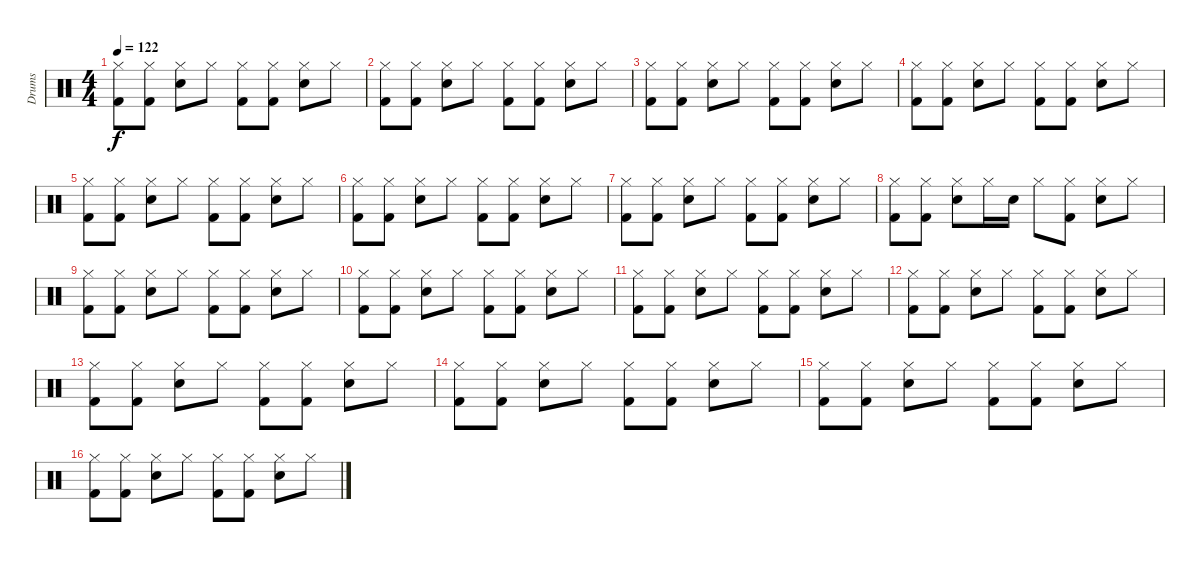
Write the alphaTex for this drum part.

\track ("Drums" "Drums") {instrument percussion}
\staff {score}
\articulation defaults
\ts (4 4)
\tempo 122
\clef neutral
\ks c
("Hi-Hat (closed)" "Kick (hit) 2").8{dy f} ("Hi-Hat (closed)" "Kick (hit) 2").8 ("Hi-Hat (closed)" "Snare (hit) 2").8 "Hi-Hat (closed)".8 ("Hi-Hat (closed)" "Kick (hit) 2").8 ("Hi-Hat (closed)" "Kick (hit) 2").8 ("Hi-Hat (closed)" "Snare (hit) 2").8 "Hi-Hat (closed)".8 |
("Hi-Hat (closed)" "Kick (hit) 2").8 ("Hi-Hat (closed)" "Kick (hit) 2").8 ("Hi-Hat (closed)" "Snare (hit) 2").8 "Hi-Hat (closed)".8 ("Hi-Hat (closed)" "Kick (hit) 2").8 ("Hi-Hat (closed)" "Kick (hit) 2").8 ("Hi-Hat (closed)" "Snare (hit) 2").8 "Hi-Hat (closed)".8 |
("Hi-Hat (closed)" "Kick (hit) 2").8 ("Hi-Hat (closed)" "Kick (hit) 2").8 ("Hi-Hat (closed)" "Snare (hit) 2").8 "Hi-Hat (closed)".8 ("Hi-Hat (closed)" "Kick (hit) 2").8 ("Hi-Hat (closed)" "Kick (hit) 2").8 ("Hi-Hat (closed)" "Snare (hit) 2").8 "Hi-Hat (closed)".8 |
("Hi-Hat (closed)" "Kick (hit) 2").8 ("Hi-Hat (closed)" "Kick (hit) 2").8 ("Hi-Hat (closed)" "Snare (hit) 2").8 "Hi-Hat (closed)".8 ("Hi-Hat (closed)" "Kick (hit) 2").8 ("Hi-Hat (closed)" "Kick (hit) 2").8 ("Hi-Hat (closed)" "Snare (hit) 2").8 "Hi-Hat (closed)".8 |
("Hi-Hat (closed)" "Kick (hit) 2").8 ("Hi-Hat (closed)" "Kick (hit) 2").8 ("Hi-Hat (closed)" "Snare (hit) 2").8 "Hi-Hat (closed)".8 ("Hi-Hat (closed)" "Kick (hit) 2").8 ("Hi-Hat (closed)" "Kick (hit) 2").8 ("Hi-Hat (closed)" "Snare (hit) 2").8 "Hi-Hat (closed)".8 |
("Hi-Hat (closed)" "Kick (hit) 2").8 ("Hi-Hat (closed)" "Kick (hit) 2").8 ("Hi-Hat (closed)" "Snare (hit) 2").8 "Hi-Hat (closed)".8 ("Hi-Hat (closed)" "Kick (hit) 2").8 ("Hi-Hat (closed)" "Kick (hit) 2").8 ("Hi-Hat (closed)" "Snare (hit) 2").8 "Hi-Hat (closed)".8 |
("Hi-Hat (closed)" "Kick (hit) 2").8 ("Hi-Hat (closed)" "Kick (hit) 2").8 ("Hi-Hat (closed)" "Snare (hit) 2").8 "Hi-Hat (closed)".8 ("Hi-Hat (closed)" "Kick (hit) 2").8 ("Hi-Hat (closed)" "Kick (hit) 2").8 ("Hi-Hat (closed)" "Snare (hit) 2").8 "Hi-Hat (closed)".8 |
("Hi-Hat (closed)" "Kick (hit) 2").8 ("Hi-Hat (closed)" "Kick (hit) 2").8 ("Hi-Hat (closed)" "Snare (hit) 2").8 "Hi-Hat (closed)".16 "Snare (hit) 2".16 "Hi-Hat (closed)".8 ("Hi-Hat (closed)" "Kick (hit) 2").8 ("Hi-Hat (closed)" "Snare (hit) 2").8 "Hi-Hat (closed)".8 |
("Hi-Hat (closed)" "Kick (hit) 2").8 ("Hi-Hat (closed)" "Kick (hit) 2").8 ("Hi-Hat (closed)" "Snare (hit) 2").8 "Hi-Hat (closed)".8 ("Hi-Hat (closed)" "Kick (hit) 2").8 ("Hi-Hat (closed)" "Kick (hit) 2").8 ("Hi-Hat (closed)" "Snare (hit) 2").8 "Hi-Hat (closed)".8 |
("Hi-Hat (closed)" "Kick (hit) 2").8 ("Hi-Hat (closed)" "Kick (hit) 2").8 ("Hi-Hat (closed)" "Snare (hit) 2").8 "Hi-Hat (closed)".8 ("Hi-Hat (closed)" "Kick (hit) 2").8 ("Hi-Hat (closed)" "Kick (hit) 2").8 ("Hi-Hat (closed)" "Snare (hit) 2").8 "Hi-Hat (closed)".8 |
("Hi-Hat (closed)" "Kick (hit) 2").8 ("Hi-Hat (closed)" "Kick (hit) 2").8 ("Hi-Hat (closed)" "Snare (hit) 2").8 "Hi-Hat (closed)".8 ("Hi-Hat (closed)" "Kick (hit) 2").8 ("Hi-Hat (closed)" "Kick (hit) 2").8 ("Hi-Hat (closed)" "Snare (hit) 2").8 "Hi-Hat (closed)".8 |
("Hi-Hat (closed)" "Kick (hit) 2").8 ("Hi-Hat (closed)" "Kick (hit) 2").8 ("Hi-Hat (closed)" "Snare (hit) 2").8 "Hi-Hat (closed)".8 ("Hi-Hat (closed)" "Kick (hit) 2").8 ("Hi-Hat (closed)" "Kick (hit) 2").8 ("Hi-Hat (closed)" "Snare (hit) 2").8 "Hi-Hat (closed)".8 |
("Hi-Hat (closed)" "Kick (hit) 2").8 ("Hi-Hat (closed)" "Kick (hit) 2").8 ("Hi-Hat (closed)" "Snare (hit) 2").8 "Hi-Hat (closed)".8 ("Hi-Hat (closed)" "Kick (hit) 2").8 ("Hi-Hat (closed)" "Kick (hit) 2").8 ("Hi-Hat (closed)" "Snare (hit) 2").8 "Hi-Hat (closed)".8 |
("Hi-Hat (closed)" "Kick (hit) 2").8 ("Hi-Hat (closed)" "Kick (hit) 2").8 ("Hi-Hat (closed)" "Snare (hit) 2").8 "Hi-Hat (closed)".8 ("Hi-Hat (closed)" "Kick (hit) 2").8 ("Hi-Hat (closed)" "Kick (hit) 2").8 ("Hi-Hat (closed)" "Snare (hit) 2").8 "Hi-Hat (closed)".8 |
("Hi-Hat (closed)" "Kick (hit) 2").8 ("Hi-Hat (closed)" "Kick (hit) 2").8 ("Hi-Hat (closed)" "Snare (hit) 2").8 "Hi-Hat (closed)".8 ("Hi-Hat (closed)" "Kick (hit) 2").8 ("Hi-Hat (closed)" "Kick (hit) 2").8 ("Hi-Hat (closed)" "Snare (hit) 2").8 "Hi-Hat (closed)".8 |
("Hi-Hat (closed)" "Kick (hit) 2").8 ("Hi-Hat (closed)" "Kick (hit) 2").8 ("Hi-Hat (closed)" "Snare (hit) 2").8 "Hi-Hat (closed)".8 ("Hi-Hat (closed)" "Kick (hit) 2").8 ("Hi-Hat (closed)" "Kick (hit) 2").8 ("Hi-Hat (closed)" "Snare (hit) 2").8 "Hi-Hat (closed)".8
